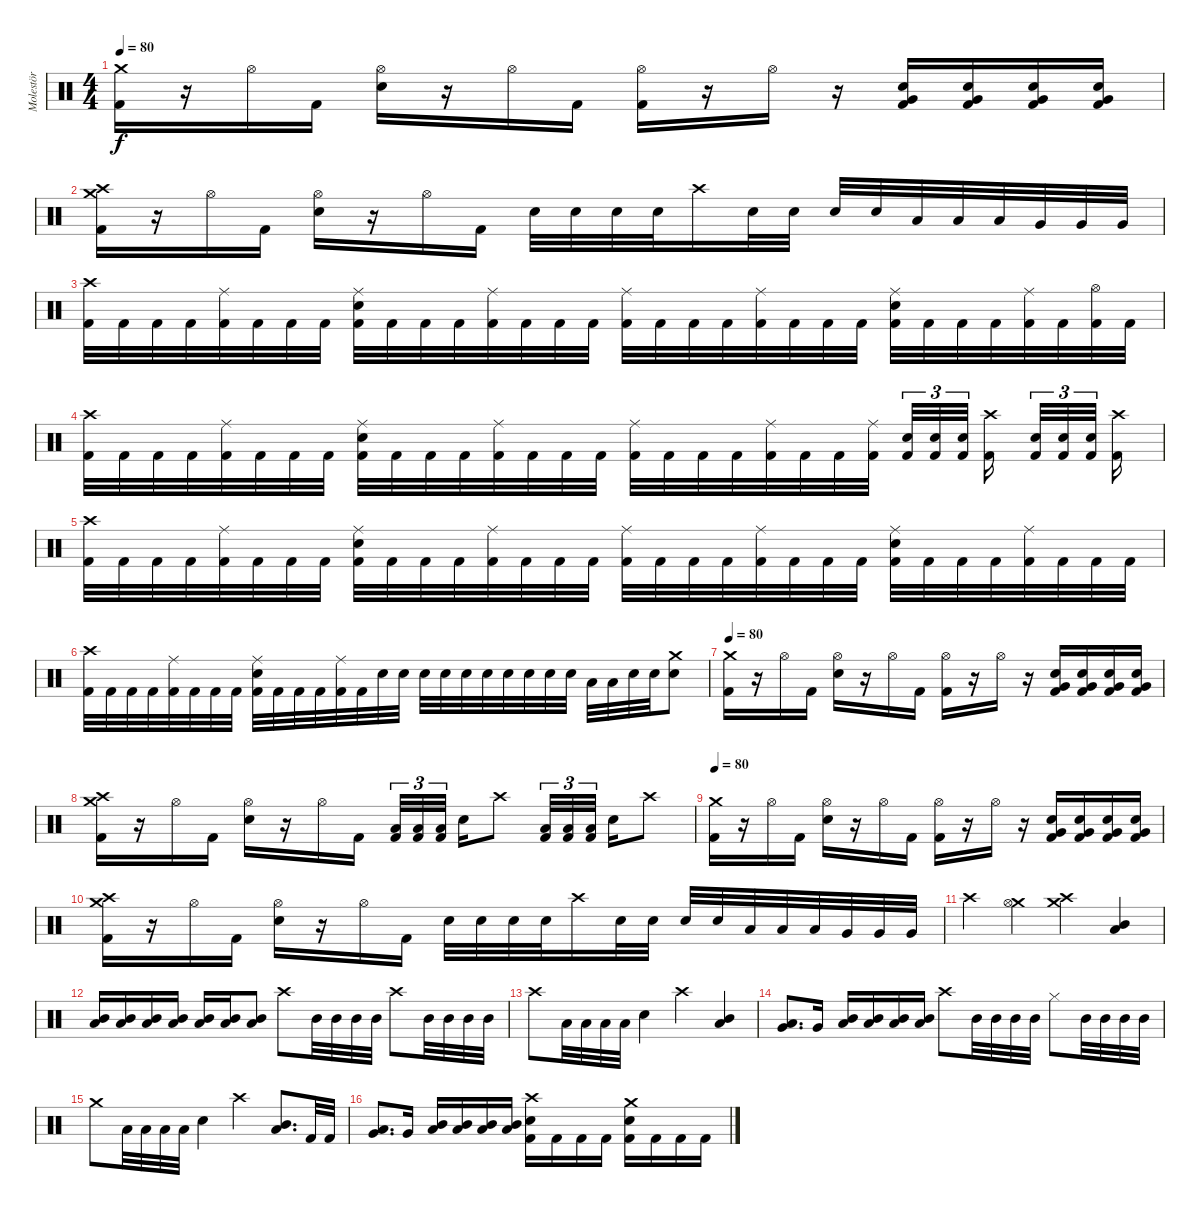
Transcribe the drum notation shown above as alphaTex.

\track ("Molestör" "Molestör") {instrument percussion}
\staff {score}
\articulation defaults
\ts (4 4)
\tempo 80
\clef neutral
\ks c
("Crash medium (hit)" "Kick (hit) 2").16{dy f} r.16 "Hi-Hat (open)".16 "Kick (hit) 2".16 ("Hi-Hat (open)" "Electric Snare (hit)").16 r.16 "Hi-Hat (open)".16 "Kick (hit) 2".16 ("Hi-Hat (open)" "Kick (hit) 2").16 r.16 "Hi-Hat (open)".16 r.16 ("Very Low Tom (hit)" "Electric Snare (hit)" "Kick (hit) 2").16 ("Very Low Tom (hit)" "Electric Snare (hit)" "Kick (hit) 2").16 ("Very Low Tom (hit)" "Electric Snare (hit)" "Kick (hit) 2").16 ("Very Low Tom (hit)" "Electric Snare (hit)" "Kick (hit) 2").16 |
("Crash high (hit)" "Crash medium (hit)" "Kick (hit) 2").16 r.16 "Hi-Hat (open)".16 "Kick (hit) 2".16 ("Hi-Hat (open)" "Electric Snare (hit)").16 r.16 "Hi-Hat (open)".16 "Kick (hit) 2".16 "Electric Snare (hit)".32 "Electric Snare (hit)".32 "Electric Snare (hit)".32 "Electric Snare (hit)".32 "Crash high (hit)".16 "Electric Snare (hit)".32 "Electric Snare (hit)".32 "Electric Snare (hit)".32 "Electric Snare (hit)".32 "Low Tom (hit)".32 "Low Tom (hit)".32 "Low Tom (hit)".32 "Very Low Tom (hit)".32 "Very Low Tom (hit)".32 "Very Low Tom (hit)".32 |
("Crash high (hit)" "Kick (hit) 2").32 "Kick (hit) 2".32 "Kick (hit) 2".32 "Kick (hit) 2".32 ("Ride (middle)" "Kick (hit) 2").32 "Kick (hit) 2".32 "Kick (hit) 2".32 "Kick (hit) 2".32 ("Ride (middle)" "Electric Snare (hit)" "Kick (hit) 2").32 "Kick (hit) 2".32 "Kick (hit) 2".32 "Kick (hit) 2".32 ("Ride (middle)" "Kick (hit) 2").32 "Kick (hit) 2".32 "Kick (hit) 2".32 "Kick (hit) 2".32 ("Ride (middle)" "Kick (hit) 2").32 "Kick (hit) 2".32 "Kick (hit) 2".32 "Kick (hit) 2".32 ("Ride (middle)" "Kick (hit) 2").32 "Kick (hit) 2".32 "Kick (hit) 2".32 "Kick (hit) 2".32 ("Ride (middle)" "Electric Snare (hit)" "Kick (hit) 2").32 "Kick (hit) 2".32 "Kick (hit) 2".32 "Kick (hit) 2".32 ("Ride (middle)" "Kick (hit) 2").32 "Kick (hit) 2".32 ("Hi-Hat (open)" "Kick (hit) 2").32 "Kick (hit) 2".32 |
("Crash high (hit)" "Kick (hit) 2").32 "Kick (hit) 2".32 "Kick (hit) 2".32 "Kick (hit) 2".32 ("Ride (middle)" "Kick (hit) 2").32 "Kick (hit) 2".32 "Kick (hit) 2".32 "Kick (hit) 2".32 ("Ride (middle)" "Electric Snare (hit)" "Kick (hit) 2").32 "Kick (hit) 2".32 "Kick (hit) 2".32 "Kick (hit) 2".32 ("Ride (middle)" "Kick (hit) 2").32 "Kick (hit) 2".32 "Kick (hit) 2".32 "Kick (hit) 2".32 ("Ride (middle)" "Kick (hit) 2").32 "Kick (hit) 2".32 "Kick (hit) 2".32 "Kick (hit) 2".32 ("Ride (middle)" "Kick (hit) 2").32 "Kick (hit) 2".32 "Kick (hit) 2".32 ("Ride (middle)" "Kick (hit) 2").32 ("Electric Snare (hit)" "Kick (hit) 2").32{tu (3 2)} ("Electric Snare (hit)" "Kick (hit) 2").32{tu (3 2)} ("Electric Snare (hit)" "Kick (hit) 2").32{tu (3 2) beam splitsecondary} ("Crash high (hit)" "Kick (hit) 2").16{beam splitsecondary} ("Electric Snare (hit)" "Kick (hit) 2").32{tu (3 2)} ("Electric Snare (hit)" "Kick (hit) 2").32{tu (3 2)} ("Electric Snare (hit)" "Kick (hit) 2").32{tu (3 2) beam splitsecondary} ("Crash high (hit)" "Kick (hit) 2").16 |
("Crash high (hit)" "Kick (hit) 2").32 "Kick (hit) 2".32 "Kick (hit) 2".32 "Kick (hit) 2".32 ("Ride (middle)" "Kick (hit) 2").32 "Kick (hit) 2".32 "Kick (hit) 2".32 "Kick (hit) 2".32 ("Ride (middle)" "Electric Snare (hit)" "Kick (hit) 2").32 "Kick (hit) 2".32 "Kick (hit) 2".32 "Kick (hit) 2".32 ("Ride (middle)" "Kick (hit) 2").32 "Kick (hit) 2".32 "Kick (hit) 2".32 "Kick (hit) 2".32 ("Ride (middle)" "Kick (hit) 2").32 "Kick (hit) 2".32 "Kick (hit) 2".32 "Kick (hit) 2".32 ("Ride (middle)" "Kick (hit) 2").32 "Kick (hit) 2".32 "Kick (hit) 2".32 "Kick (hit) 2".32 ("Ride (middle)" "Electric Snare (hit)" "Kick (hit) 2").32 "Kick (hit) 2".32 "Kick (hit) 2".32 "Kick (hit) 2".32 ("Ride (middle)" "Kick (hit) 2").32 "Kick (hit) 2".32 "Kick (hit) 2".32 "Kick (hit) 2".32 |
("Crash high (hit)" "Kick (hit) 2").32 "Kick (hit) 2".32 "Kick (hit) 2".32 "Kick (hit) 2".32 ("Ride (middle)" "Kick (hit) 2").32 "Kick (hit) 2".32 "Kick (hit) 2".32 "Kick (hit) 2".32 ("Ride (middle)" "Electric Snare (hit)" "Kick (hit) 2").32 "Kick (hit) 2".32 "Kick (hit) 2".32 "Kick (hit) 2".32 ("Ride (middle)" "Kick (hit) 2").32 "Kick (hit) 2".32 "Electric Snare (hit)".32 "Electric Snare (hit)".32 "Electric Snare (hit)".32 "Electric Snare (hit)".32 "Electric Snare (hit)".32 "Electric Snare (hit)".32 "Electric Snare (hit)".32 "Electric Snare (hit)".32 "Electric Snare (hit)".32 "Electric Snare (hit)".32 "Low Tom (hit)".32 "Low Tom (hit)".32 "Electric Snare (hit)".32 "Electric Snare (hit)".32 ("Crash medium (hit)" "Electric Snare (hit)").8 |
\tempo 80
("Crash medium (hit)" "Kick (hit) 2").16 r.16 "Hi-Hat (open)".16 "Kick (hit) 2".16 ("Hi-Hat (open)" "Electric Snare (hit)").16 r.16 "Hi-Hat (open)".16 "Kick (hit) 2".16 ("Hi-Hat (open)" "Kick (hit) 2").16 r.16 "Hi-Hat (open)".16 r.16 ("Very Low Tom (hit)" "Electric Snare (hit)" "Kick (hit) 2").16 ("Very Low Tom (hit)" "Electric Snare (hit)" "Kick (hit) 2").16 ("Very Low Tom (hit)" "Electric Snare (hit)" "Kick (hit) 2").16 ("Very Low Tom (hit)" "Electric Snare (hit)" "Kick (hit) 2").16 |
("Crash high (hit)" "Crash medium (hit)" "Kick (hit) 2").16 r.16 "Hi-Hat (open)".16 "Kick (hit) 2".16 ("Hi-Hat (open)" "Electric Snare (hit)").16 r.16 "Hi-Hat (open)".16 "Kick (hit) 2".16 ("Low Tom (hit)" "Kick (hit) 2").32{tu (3 2)} ("Low Tom (hit)" "Kick (hit) 2").32{tu (3 2)} ("Low Tom (hit)" "Kick (hit) 2").32{tu (3 2) beam splitsecondary} "Electric Snare (hit)".16 "Crash high (hit)".8 ("Low Tom (hit)" "Kick (hit) 2").32{tu (3 2)} ("Low Tom (hit)" "Kick (hit) 2").32{tu (3 2)} ("Low Tom (hit)" "Kick (hit) 2").32{tu (3 2) beam splitsecondary} "Electric Snare (hit)".16 "Crash high (hit)".8 |
\tempo 80
("Crash medium (hit)" "Kick (hit) 2").16 r.16 "Hi-Hat (open)".16 "Kick (hit) 2".16 ("Hi-Hat (open)" "Electric Snare (hit)").16 r.16 "Hi-Hat (open)".16 "Kick (hit) 2".16 ("Hi-Hat (open)" "Kick (hit) 2").16 r.16 "Hi-Hat (open)".16 r.16 ("Very Low Tom (hit)" "Electric Snare (hit)" "Kick (hit) 2").16 ("Very Low Tom (hit)" "Electric Snare (hit)" "Kick (hit) 2").16 ("Very Low Tom (hit)" "Electric Snare (hit)" "Kick (hit) 2").16 ("Very Low Tom (hit)" "Electric Snare (hit)" "Kick (hit) 2").16 |
("Crash high (hit)" "Crash medium (hit)" "Kick (hit) 2").16 r.16 "Hi-Hat (open)".16 "Kick (hit) 2".16 ("Hi-Hat (open)" "Electric Snare (hit)").16 r.16 "Hi-Hat (open)".16 "Kick (hit) 2".16 "Electric Snare (hit)".32 "Electric Snare (hit)".32 "Electric Snare (hit)".32 "Electric Snare (hit)".32 "Crash high (hit)".16 "Electric Snare (hit)".32 "Electric Snare (hit)".32 "Electric Snare (hit)".32 "Electric Snare (hit)".32 "Low Tom (hit)".32 "Low Tom (hit)".32 "Low Tom (hit)".32 "Very Low Tom (hit)".32 "Very Low Tom (hit)".32 "Very Low Tom (hit)".32 |
"Crash high (hit)".4 ("Crash medium (hit)" "Hi-Hat (open)").4 ("Crash medium (hit)" "Crash high (hit)").4 ("Mid Tom (hit)" "Low Tom (hit)").4 |
("Mid Tom (hit)" "Low Tom (hit)").16 ("Mid Tom (hit)" "Low Tom (hit)").16 ("Mid Tom (hit)" "Low Tom (hit)").16 ("Mid Tom (hit)" "Low Tom (hit)").16 ("Mid Tom (hit)" "Low Tom (hit)").16 ("Mid Tom (hit)" "Low Tom (hit)").16 ("Mid Tom (hit)" "Low Tom (hit)").8 "Crash high (hit)".8 "Mid Tom (hit)".32 "Mid Tom (hit)".32 "Mid Tom (hit)".32 "Mid Tom (hit)".32 "Crash high (hit)".8 "Mid Tom (hit)".32 "Mid Tom (hit)".32 "Mid Tom (hit)".32 "Mid Tom (hit)".32 |
"Crash high (hit)".8 "Low Tom (hit)".32 "Low Tom (hit)".32 "Low Tom (hit)".32 "Low Tom (hit)".32 "Electric Snare (hit)".4 "Crash high (hit)".4 ("Mid Tom (hit)" "Low Tom (hit)").4 |
("Low Tom (hit)" "Very Low Tom (hit)").8{d} "Very Low Tom (hit)".16 ("Mid Tom (hit)" "Low Tom (hit)").16 ("Mid Tom (hit)" "Low Tom (hit)").16 ("Mid Tom (hit)" "Low Tom (hit)").16 ("Mid Tom (hit)" "Low Tom (hit)").16 "Crash high (hit)".8 "Mid Tom (hit)".32 "Mid Tom (hit)".32 "Mid Tom (hit)".32 "Mid Tom (hit)".32 "Hi-Hat (closed)".8 "Mid Tom (hit)".32 "Mid Tom (hit)".32 "Mid Tom (hit)".32 "Mid Tom (hit)".32 |
"Crash medium (hit)".8 "Low Tom (hit)".32 "Low Tom (hit)".32 "Low Tom (hit)".32 "Low Tom (hit)".32 "Electric Snare (hit)".4 "Crash high (hit)".4 ("Mid Tom (hit)" "Low Tom (hit)").8{d} "Kick (hit) 2".32 "Kick (hit) 2".32 |
("Low Tom (hit)" "Very Low Tom (hit)").8{d} "Very Low Tom (hit)".16 ("Mid Tom (hit)" "Low Tom (hit)").16 ("Mid Tom (hit)" "Low Tom (hit)").16 ("Mid Tom (hit)" "Low Tom (hit)").16 ("Mid Tom (hit)" "Low Tom (hit)").16 ("Crash high (hit)" "Electric Snare (hit)" "Kick (hit) 2").16 "Kick (hit) 2".16 "Kick (hit) 2".16 "Kick (hit) 2".16 ("Crash medium (hit)" "Electric Snare (hit)" "Kick (hit) 2").16 "Kick (hit) 2".16 "Kick (hit) 2".16 "Kick (hit) 2".16
